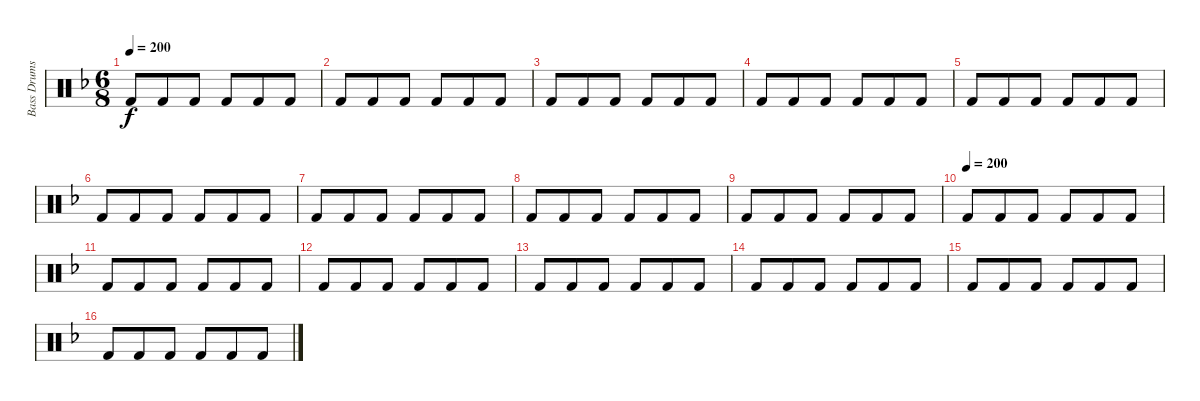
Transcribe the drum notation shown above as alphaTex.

\track ("Bass Drums" "Bass Drums") {instrument percussion}
\staff {score}
\articulation defaults
\ts (6 8)
\tempo 200
\clef neutral
\ks dminor "Kick (hit) 2".8{dy f} "Kick (hit) 2".8 "Kick (hit) 2".8 "Kick (hit) 2".8 "Kick (hit) 2".8 "Kick (hit) 2".8
|
"Kick (hit) 2".8 "Kick (hit) 2".8 "Kick (hit) 2".8 "Kick (hit) 2".8 "Kick (hit) 2".8 "Kick (hit) 2".8 |
"Kick (hit) 2".8 "Kick (hit) 2".8 "Kick (hit) 2".8 "Kick (hit) 2".8 "Kick (hit) 2".8 "Kick (hit) 2".8 |
"Kick (hit) 2".8 "Kick (hit) 2".8 "Kick (hit) 2".8 "Kick (hit) 2".8 "Kick (hit) 2".8 "Kick (hit) 2".8 |
"Kick (hit) 2".8 "Kick (hit) 2".8 "Kick (hit) 2".8 "Kick (hit) 2".8 "Kick (hit) 2".8 "Kick (hit) 2".8 |
"Kick (hit) 2".8 "Kick (hit) 2".8 "Kick (hit) 2".8 "Kick (hit) 2".8 "Kick (hit) 2".8 "Kick (hit) 2".8 |
"Kick (hit) 2".8 "Kick (hit) 2".8 "Kick (hit) 2".8 "Kick (hit) 2".8 "Kick (hit) 2".8 "Kick (hit) 2".8 |
"Kick (hit) 2".8 "Kick (hit) 2".8 "Kick (hit) 2".8 "Kick (hit) 2".8 "Kick (hit) 2".8 "Kick (hit) 2".8 |
"Kick (hit) 2".8 "Kick (hit) 2".8 "Kick (hit) 2".8 "Kick (hit) 2".8 "Kick (hit) 2".8 "Kick (hit) 2".8 |
\tempo (200)
"Kick (hit) 2".8 "Kick (hit) 2".8 "Kick (hit) 2".8 "Kick (hit) 2".8 "Kick (hit) 2".8 "Kick (hit) 2".8 |
"Kick (hit) 2".8 "Kick (hit) 2".8 "Kick (hit) 2".8 "Kick (hit) 2".8 "Kick (hit) 2".8 "Kick (hit) 2".8 |
"Kick (hit) 2".8 "Kick (hit) 2".8 "Kick (hit) 2".8 "Kick (hit) 2".8 "Kick (hit) 2".8 "Kick (hit) 2".8 |
"Kick (hit) 2".8 "Kick (hit) 2".8 "Kick (hit) 2".8 "Kick (hit) 2".8 "Kick (hit) 2".8 "Kick (hit) 2".8 |
"Kick (hit) 2".8 "Kick (hit) 2".8 "Kick (hit) 2".8 "Kick (hit) 2".8 "Kick (hit) 2".8 "Kick (hit) 2".8 |
"Kick (hit) 2".8 "Kick (hit) 2".8 "Kick (hit) 2".8 "Kick (hit) 2".8 "Kick (hit) 2".8 "Kick (hit) 2".8 |
"Kick (hit) 2".8 "Kick (hit) 2".8 "Kick (hit) 2".8 "Kick (hit) 2".8 "Kick (hit) 2".8 "Kick (hit) 2".8
